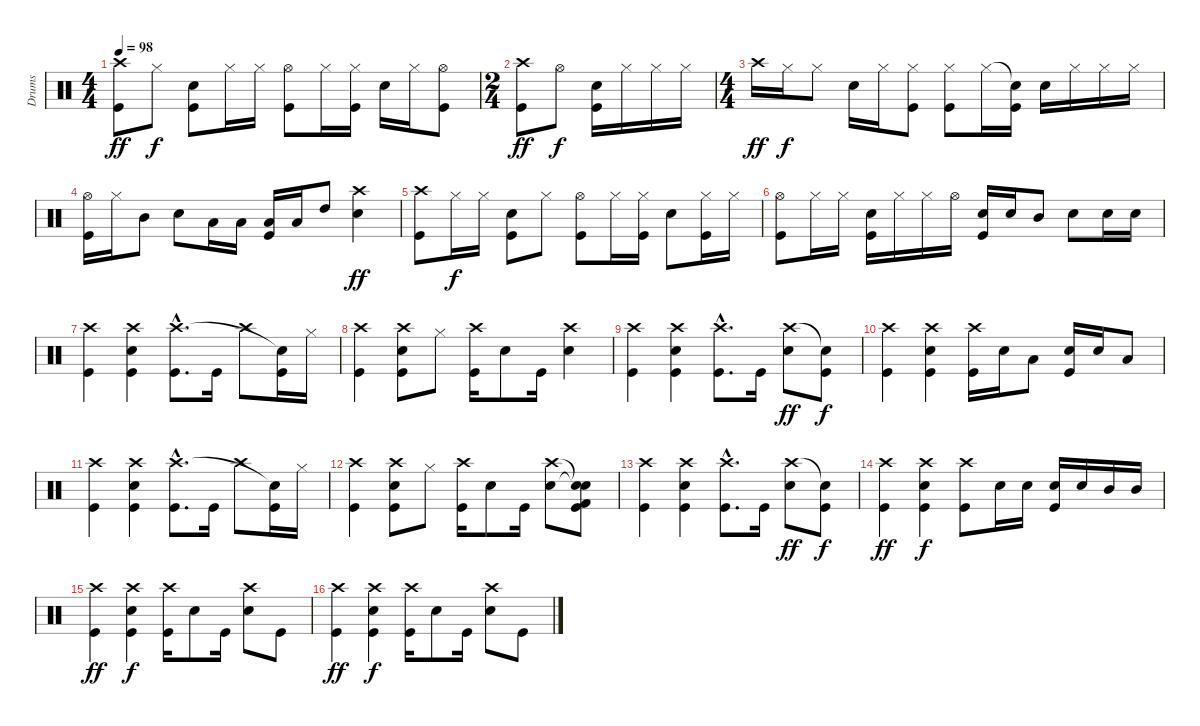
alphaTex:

\track ("Drums" "Drums") {instrument percussion}
\staff {score}
\articulation defaults
\ts (4 4)
\tempo 98
\clef neutral
\ks c
("Crash high (hit)" "Kick (hit)").8{dy ff} "Hi-Hat (closed)".8{dy f} ("Kick (hit)" "Electric Snare (hit)").8 "Hi-Hat (closed)".16 "Hi-Hat (closed)".16 ("Hi-Hat (open)" "Kick (hit)").8 "Hi-Hat (closed)".16 ("Hi-Hat (closed)" "Kick (hit)").16 "Electric Snare (hit)".16 "Hi-Hat (closed)".16 ("Hi-Hat (open)" "Kick (hit)").8 |
\ts (2 4)
("Crash high (hit)" "Kick (hit)").8{dy ff} "Hi-Hat (open)".8{dy f} ("Electric Snare (hit)" "Kick (hit)").16 "Hi-Hat (closed)".16 "Hi-Hat (closed)".16 "Hi-Hat (closed)".16 |
\ts (4 4)
"Crash high (hit)".16{dy ff} "Hi-Hat (closed)".16{dy f} "Hi-Hat (closed)".8 "Electric Snare (hit)".16 "Hi-Hat (closed)".16 ("Hi-Hat (closed)" "Kick (hit)").8 ("Hi-Hat (closed)" "Kick (hit)").8 "Hi-Hat (closed)".16 ("Snare (hit)"{t} "Kick (hit)").16 "Electric Snare (hit)".16 "Hi-Hat (closed)".16 "Hi-Hat (closed)".16 "Hi-Hat (closed)".16 |
("Hi-Hat (open)" "Kick (hit)").16 "Hi-Hat (closed)".16 "Mid Tom (hit)".8 "Electric Snare (hit)".8 "Low Tom (hit)".16 "Low Tom (hit)".16 ("Low Tom (hit)" "Kick (hit)").16 "Low Tom (hit)".16 "High Tom (hit)".8 ("Crash high (hit)" "Electric Snare (hit)").4{dy ff} |
("Crash high (hit)" "Kick (hit)").8 "Hi-Hat (closed)".16{dy f} "Hi-Hat (closed)".16 ("Electric Snare (hit)" "Kick (hit)").8 "Hi-Hat (closed)".8 ("Hi-Hat (open)" "Kick (hit)").8 "Hi-Hat (closed)".16 ("Hi-Hat (closed)" "Kick (hit)").16 "Electric Snare (hit)".8 ("Hi-Hat (closed)" "Kick (hit)").16 "Hi-Hat (closed)".16 |
("Hi-Hat (open)" "Kick (hit)").8 "Hi-Hat (closed)".16 "Hi-Hat (closed)".16 ("Electric Snare (hit)" "Kick (hit)").16 "Hi-Hat (closed)".16 "Hi-Hat (closed)".16 "Hi-Hat (open)".16 ("Electric Snare (hit)" "Kick (hit)").16 "Electric Snare (hit)".16 "Mid Tom (hit)".8 "Electric Snare (hit)".8 "Electric Snare (hit)".16 "Electric Snare (hit)".16 |
("Kick (hit)" "Crash high (hit)").4 ("Kick (hit)" "Electric Snare (hit)" "Crash high (hit)").4 ("Kick (hit)"{hac} "Crash high (hit)"{hac}).8{d} "Kick (hit)".16 "Crash high (hit)".8 ("Kick (hit)" "Snare (hit)"{t}).16 "Hi-Hat (closed)".16 |
("Kick (hit)" "Crash high (hit)").4 ("Kick (hit)" "Electric Snare (hit)" "Crash high (hit)").8 "Hi-Hat (closed)".8 ("Kick (hit)" "Crash high (hit)").16 "Electric Snare (hit)".8 "Kick (hit)".16 ("Electric Snare (hit)" "Crash high (hit)").4 |
("Kick (hit)" "Crash high (hit)").4 ("Kick (hit)" "Electric Snare (hit)" "Crash high (hit)").4 ("Kick (hit)"{hac} "Crash high (hit)"{hac}).8{d} "Kick (hit)".16 ("Electric Snare (hit)" "Crash high (hit)").8{dy ff} ("Kick (hit)" "Snare (hit)"{t}).8{dy f} |
("Crash high (hit)" "Kick (hit)").4 ("Crash high (hit)" "Electric Snare (hit)" "Kick (hit)").4 ("Crash high (hit)" "Kick (hit)").16 "Electric Snare (hit)".16 "Low Tom (hit)".8 ("Electric Snare (hit)" "Kick (hit)").16 "Electric Snare (hit)".16 "Low Tom (hit)".8 |
("Kick (hit)" "Crash high (hit)").4 ("Kick (hit)" "Electric Snare (hit)" "Crash high (hit)").4 ("Kick (hit)"{hac} "Crash high (hit)"{hac}).8{d} "Kick (hit)".16 "Crash high (hit)".8 ("Kick (hit)" "Snare (hit)"{t}).16 "Hi-Hat (closed)".16 |
("Kick (hit)" "Crash high (hit)").4 ("Kick (hit)" "Electric Snare (hit)" "Crash high (hit)").8 "Hi-Hat (closed)".8 ("Kick (hit)" "Crash high (hit)").16 "Electric Snare (hit)".8 "Kick (hit)".16 ("Electric Snare (hit)" "Crash high (hit)").8 ("Snare (hit)"{t} "Snare (hit)"{t} "Kick (hit) 2" "Kick (hit)").8 |
("Kick (hit)" "Crash high (hit)").4 ("Kick (hit)" "Electric Snare (hit)" "Crash high (hit)").4 ("Kick (hit)"{hac} "Crash high (hit)"{hac}).8{d} "Kick (hit)".16 ("Electric Snare (hit)" "Crash high (hit)").8{dy ff} ("Kick (hit)" "Snare (hit)"{t}).8{dy f} |
("Crash high (hit)" "Kick (hit)").4{dy ff} ("Crash high (hit)" "Electric Snare (hit)" "Kick (hit)").4{dy f} ("Crash high (hit)" "Kick (hit)").8 "Electric Snare (hit)".16 "Electric Snare (hit)".16 ("Electric Snare (hit)" "Kick (hit)").16 "Electric Snare (hit)".16 "Mid Tom (hit)".16 "Mid Tom (hit)".16 |
("Crash high (hit)" "Kick (hit)").4{dy ff} ("Crash high (hit)" "Electric Snare (hit)" "Kick (hit)").4{dy f} ("Crash high (hit)" "Kick (hit)").16 "Electric Snare (hit)".8 "Kick (hit)".16 ("Crash high (hit)" "Electric Snare (hit)").8 "Kick (hit)".8 |
("Crash high (hit)" "Kick (hit)").4{dy ff} ("Crash high (hit)" "Electric Snare (hit)" "Kick (hit)").4{dy f} ("Crash high (hit)" "Kick (hit)").16 "Electric Snare (hit)".8 "Kick (hit)".16 ("Crash high (hit)" "Electric Snare (hit)").8 "Kick (hit)".8
